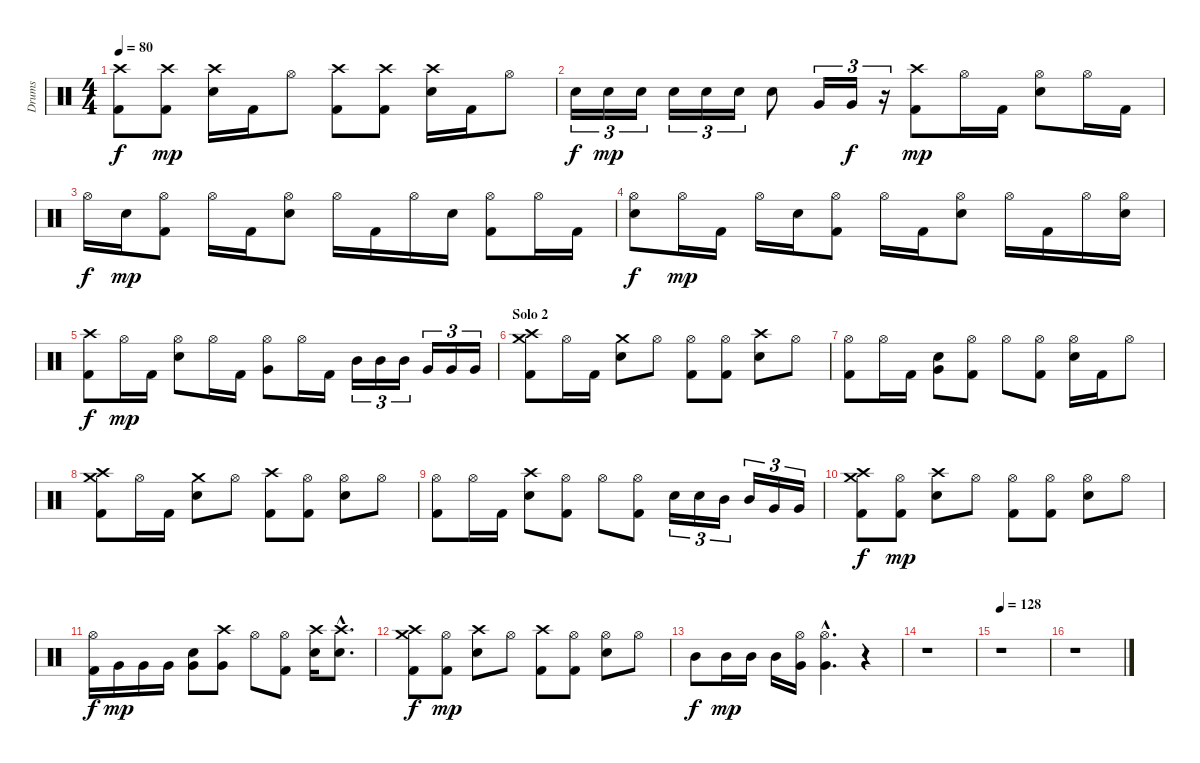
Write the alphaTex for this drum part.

\track ("Drums" "Drums") {instrument percussion}
\staff {score}
\articulation defaults
\ts (4 4)
\tempo 80
\clef neutral
\ks c
("Kick (hit) 2" "Crash high (hit)").8{dy f} ("Kick (hit) 2" "Crash high (hit)").8{dy mp} ("Electric Snare (hit)" "Crash high (hit)").16 "Kick (hit) 2".16 "Hi-Hat (open)".8 ("Kick (hit) 2" "Crash high (hit)").8 ("Kick (hit) 2" "Crash high (hit)").8 ("Electric Snare (hit)" "Crash high (hit)").16 "Kick (hit) 2".16 "Hi-Hat (open)".8 |
"Electric Snare (hit)".16{tu (3 2) dy f} "Electric Snare (hit)".16{tu (3 2) dy mp} "Electric Snare (hit)".16{tu (3 2)} "Electric Snare (hit)".16{tu (3 2)} "Electric Snare (hit)".16{tu (3 2)} "Electric Snare (hit)".16{tu (3 2)} "Electric Snare (hit)".8 "Very Low Tom (hit)".16{tu (3 2)} "Very Low Tom (hit)".16{tu (3 2) dy f} r.16{tu (3 2)} ("Kick (hit) 2" "Crash high (hit)").8{dy mp} "Hi-Hat (open)".16 "Kick (hit) 2".16 ("Electric Snare (hit)" "Hi-Hat (open)").8 "Hi-Hat (open)".16 "Kick (hit) 2".16 |
"Hi-Hat (open)".16{dy f} "Electric Snare (hit)".16{dy mp} ("Kick (hit) 2" "Hi-Hat (open)").8 "Hi-Hat (open)".16 "Kick (hit) 2".16 ("Electric Snare (hit)" "Hi-Hat (open)").8 "Hi-Hat (open)".16 "Kick (hit) 2".16 "Hi-Hat (open)".16 "Electric Snare (hit)".16 ("Kick (hit) 2" "Hi-Hat (open)").8 "Hi-Hat (open)".16 "Kick (hit) 2".16 |
("Electric Snare (hit)" "Hi-Hat (open)").8{dy f} "Hi-Hat (open)".16{dy mp} "Kick (hit) 2".16 "Hi-Hat (open)".16 "Electric Snare (hit)".16 ("Kick (hit) 2" "Hi-Hat (open)").8 "Hi-Hat (open)".16 "Kick (hit) 2".16 ("Electric Snare (hit)" "Hi-Hat (open)").8 "Hi-Hat (open)".16 "Kick (hit) 2".16 "Hi-Hat (open)".16 ("Electric Snare (hit)" "Hi-Hat (open)").16 |
("Kick (hit) 2" "Crash high (hit)").8{dy f} "Hi-Hat (open)".16{dy mp} "Kick (hit) 2".16 ("Electric Snare (hit)" "Hi-Hat (open)").8 "Hi-Hat (open)".16 "Kick (hit) 2".16 ("Very Low Tom (hit)" "Hi-Hat (open)").8 "Hi-Hat (open)".16 "Kick (hit) 2".16 "Mid Tom (hit)".16{tu (3 2)} "Mid Tom (hit)".16{tu (3 2)} "Mid Tom (hit)".16{tu (3 2)} "Very Low Tom (hit)".16{tu (3 2)} "Very Low Tom (hit)".16{tu (3 2)} "Very Low Tom (hit)".16{tu (3 2)} |
\section ("" "Solo 2")
("Kick (hit) 2" "Crash high (hit)" "Crash medium (hit)").8 "Hi-Hat (open)".16 "Kick (hit) 2".16 ("Electric Snare (hit)" "Crash medium (hit)").8 "Hi-Hat (open)".8 ("Kick (hit) 2" "Hi-Hat (open)").8 ("Kick (hit) 2" "Hi-Hat (open)").8 ("Electric Snare (hit)" "Crash high (hit)").8 "Hi-Hat (open)".8 |
("Kick (hit) 2" "Hi-Hat (open)").8 "Hi-Hat (open)".16 "Kick (hit) 2".16 ("Electric Snare (hit)" "Very Low Tom (hit)").8 ("Kick (hit) 2" "Hi-Hat (open)").8 "Hi-Hat (open)".8 ("Kick (hit) 2" "Hi-Hat (open)").8 ("Electric Snare (hit)" "Hi-Hat (open)").16 "Kick (hit) 2".16 "Hi-Hat (open)".8 |
("Kick (hit) 2" "Crash high (hit)" "Crash medium (hit)").8 "Hi-Hat (open)".16 "Kick (hit) 2".16 ("Electric Snare (hit)" "Crash medium (hit)").8 "Hi-Hat (open)".8 ("Kick (hit) 2" "Crash high (hit)").8 ("Kick (hit) 2" "Hi-Hat (open)").8 ("Electric Snare (hit)" "Hi-Hat (open)").8 "Hi-Hat (open)".8 |
("Kick (hit) 2" "Hi-Hat (open)").8 "Hi-Hat (open)".16 "Kick (hit) 2".16 ("Electric Snare (hit)" "Crash high (hit)").8 ("Kick (hit) 2" "Hi-Hat (open)").8 "Hi-Hat (open)".8 ("Kick (hit) 2" "Hi-Hat (open)").8 "Electric Snare (hit)".16{tu (3 2)} "Electric Snare (hit)".16{tu (3 2)} "Mid Tom (hit)".16{tu (3 2)} "Mid Tom (hit)".16{tu (3 2)} "Very Low Tom (hit)".16{tu (3 2)} "Very Low Tom (hit)".16{tu (3 2)} |
("Kick (hit) 2" "Crash high (hit)" "Crash medium (hit)").8{dy f} ("Kick (hit) 2" "Hi-Hat (open)").8{dy mp} ("Electric Snare (hit)" "Crash high (hit)").8 "Hi-Hat (open)".8 ("Kick (hit) 2" "Hi-Hat (open)").8 ("Kick (hit) 2" "Hi-Hat (open)").8 ("Electric Snare (hit)" "Hi-Hat (open)").8 "Hi-Hat (open)".8 |
("Kick (hit) 2" "Hi-Hat (open)").16{dy f} "Very Low Tom (hit)".16{dy mp} "Very Low Tom (hit)".16 "Very Low Tom (hit)".16 ("Electric Snare (hit)" "Very Low Tom (hit)").8 ("Very Low Tom (hit)" "Crash high (hit)").8 "Hi-Hat (open)".8 ("Kick (hit) 2" "Hi-Hat (open)").8 ("Electric Snare (hit)" "Crash high (hit)").16 ("Electric Snare (hit)"{hac} "Crash high (hit)"{hac}).8{d} |
("Kick (hit) 2" "Crash high (hit)" "Crash medium (hit)").8{dy f} ("Kick (hit) 2" "Hi-Hat (open)").8{dy mp} ("Electric Snare (hit)" "Crash high (hit)").8 "Hi-Hat (open)".8 ("Kick (hit) 2" "Crash high (hit)").8 ("Kick (hit) 2" "Hi-Hat (open)").8 ("Electric Snare (hit)" "Hi-Hat (open)").8 "Hi-Hat (open)".8 |
"Mid Tom (hit)".8{dy f} "Mid Tom (hit)".16{dy mp} "Mid Tom (hit)".16 "Mid Tom (hit)".16 ("Very Low Tom (hit)" "Hi-Hat (open)").16 ("Very Low Tom (hit)"{hac} "Hi-Hat (open)"{hac}).4{d} r.4 |
r.1 |
\tempo 128
r.1 |
r.1
